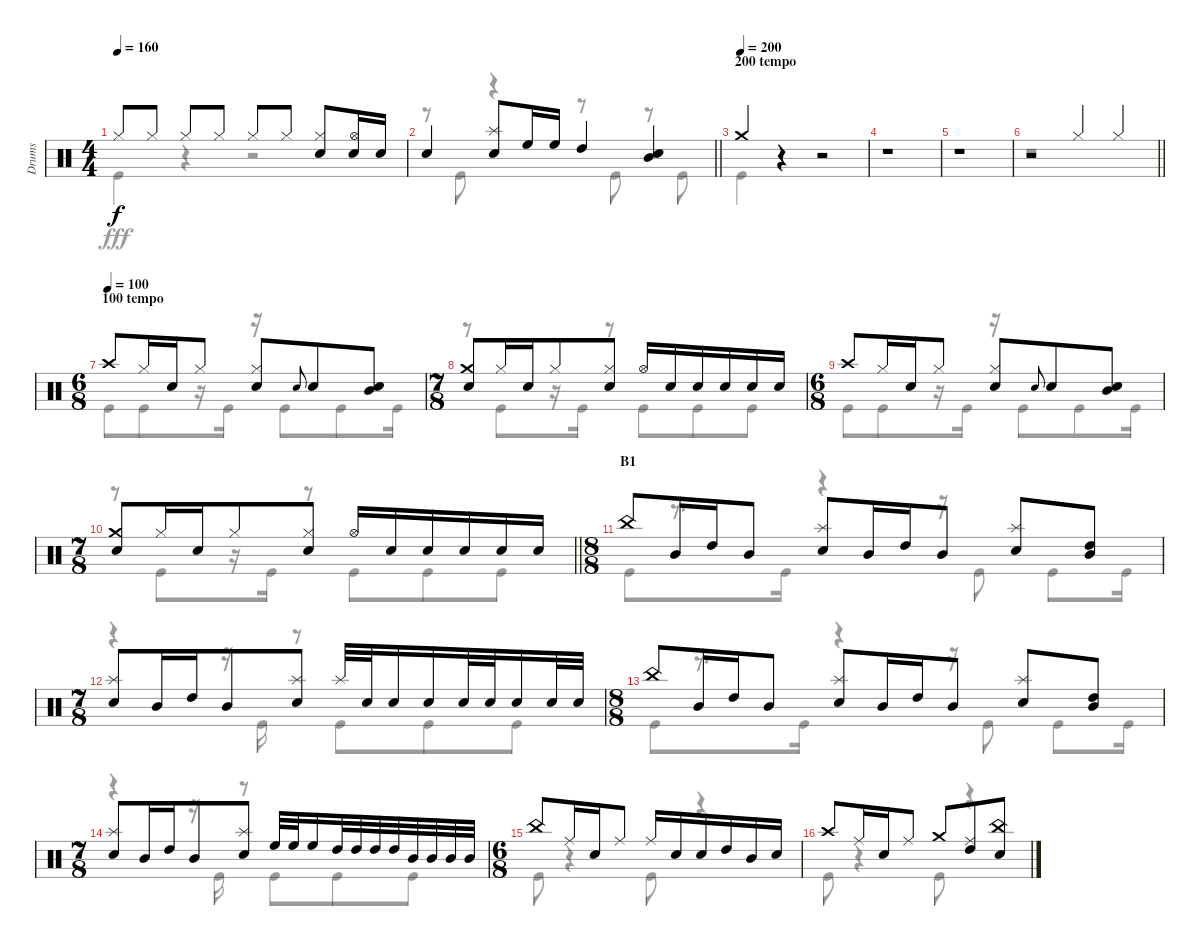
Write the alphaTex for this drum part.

\track ("Drums" "Drums") {instrument percussion}
\staff {score}
\articulation defaults
\voice
\ts (4 4)
\tempo 160
\clef neutral
\ks c "Hi-Hat (closed)".8{dy f} "Hi-Hat (closed)".8 "Hi-Hat (closed)".8 "Hi-Hat (closed)".8 "Hi-Hat (closed)".8 "Hi-Hat (closed)".8
("Hi-Hat (closed)" "Snare (hit) 2").8 ("Hi-Hat (open)" "Snare (hit) 2").16 "Snare (hit) 2".16 |
\barLineRight lightlight "Snare (hit) 2".4
("Splash (hit)" "Snare (hit) 2").8 "High Floor Tom (hit)".16 "High Floor Tom (hit)".16 "High Tom (hit)".4 ("Mid Tom (hit)" "Snare (hit) 2").4 |
\section ("" "200 tempo")
\tempo (200)
"Crash medium (hit)".4 r.4 r.2 |
r.1 |
r.1 |
\barLineRight lightlight
r.2 "Hi-Hat (closed)".4 "Hi-Hat (closed)".4 |
\ts (6 8)
\section ("" "100 tempo")
\tempo (100)
"Crash high (hit)".8 "Hi-Hat (closed)".16 "Snare (hit) 2".16 "Hi-Hat (closed)".8 ("Hi-Hat (closed)" "Snare (hit) 2").8 "Snare (hit) 2".8{gr onbeat} "Snare (hit) 2".8 ("Mid Tom (hit)" "Snare (hit) 2").8 |
\ts (7 8)
("Crash medium (hit)" "Snare (hit) 2").8 "Hi-Hat (closed)".16 "Snare (hit) 2".16 "Hi-Hat (closed)".8 ("Hi-Hat (closed)" "Snare (hit) 2").8 "Hi-Hat (open)".16 "Snare (hit) 2".16 "Snare (hit) 2".16 "Snare (hit) 2".16 "Snare (hit) 2".16 "Snare (hit) 2".16 |
\ts (6 8)
"Crash high (hit)".8 "Hi-Hat (closed)".16 "Snare (hit) 2".16 "Hi-Hat (closed)".8 ("Hi-Hat (closed)" "Snare (hit) 2").8 "Snare (hit) 2".8{gr onbeat} "Snare (hit) 2".8 ("Mid Tom (hit)" "Snare (hit) 2").8 |
\ts (7 8)
\barLineRight lightlight
("Crash medium (hit)" "Snare (hit) 2").8 "Hi-Hat (closed)".16 "Snare (hit) 2".16 "Hi-Hat (closed)".8 ("Hi-Hat (closed)" "Snare (hit) 2").8 "Hi-Hat (open)".16 "Snare (hit) 2".16 "Snare (hit) 2".16 "Snare (hit) 2".16 "Snare (hit) 2".16 "Snare (hit) 2".16 |
\ts (8 8)
\section ("" "B1")
"China (hit)".8 "Mid Tom (hit)".16 "High Tom (hit)".16 "Mid Tom (hit)".8 ("Splash (hit)" "Snare (hit) 2").8 "Mid Tom (hit)".16 "High Tom (hit)".16 "Mid Tom (hit)".8 ("Splash (hit)" "Snare (hit) 2").8 ("High Tom (hit)" "Mid Tom (hit)").8 |
\ts (7 8)
("Splash (hit)" "Snare (hit) 2").8 "Mid Tom (hit)".16 "High Tom (hit)".16 "Mid Tom (hit)".8 ("Splash (hit)" "Snare (hit) 2").8 "Splash (hit)".32 "Snare (hit) 2".32 "Snare (hit) 2".16 "Snare (hit) 2".16 "Snare (hit) 2".32 "Snare (hit) 2".32 "Snare (hit) 2".16 "Snare (hit) 2".32 "Snare (hit) 2".32 |
\ts (8 8)
"China (hit)".8 "Mid Tom (hit)".16 "High Tom (hit)".16 "Mid Tom (hit)".8 ("Splash (hit)" "Snare (hit) 2").8 "Mid Tom (hit)".16 "High Tom (hit)".16 "Mid Tom (hit)".8 ("Splash (hit)" "Snare (hit) 2").8 ("High Tom (hit)" "Mid Tom (hit)").8 |
\ts (7 8)
("Splash (hit)" "Snare (hit) 2").8 "Mid Tom (hit)".16 "High Tom (hit)".16 "Mid Tom (hit)".8 ("Splash (hit)" "Snare (hit) 2").8 "High Floor Tom (hit)".32 "High Floor Tom (hit)".32 "High Floor Tom (hit)".16 "High Tom (hit)".32 "High Tom (hit)".32 "High Tom (hit)".32 "High Tom (hit)".32 "Mid Tom (hit)".32 "Mid Tom (hit)".32 "Mid Tom (hit)".32 "Mid Tom (hit)".32 |
\ts (6 8)
"China (hit)".8 "Ride (middle)".16 "Snare (hit) 2".16 "Ride (middle)".8 "Ride (middle)".16 "Snare (hit) 2".16 "Snare (hit) 2".16 "High Tom (hit)".16 "Mid Tom (hit)".16 "Snare (hit) 2".16 |
"Crash high (hit)".8 "Ride (middle)".16 "Snare (hit) 2".16 "Ride (middle)".8 "Crash medium (hit)".8 ("Ride (middle)" "High Tom (hit)").8 ("China (hit)" "Snare (hit) 2").8
\voice
\clef neutral
\ottava regular
\simile none
\ks c "Kick (hit)".4{dy fff}
r.4 r.2 |
\barLineRight lightlight
r.8 "Kick (hit)".8 r.4 r.8 "Kick (hit)".8 r.8 "Kick (hit)".8 |
"Kick (hit)".4 r.4 r.2 |
r.1 |
r.1 |
\barLineRight lightlight
r.1 |
"Kick (hit)".8 "Kick (hit)".8 r.16 "Kick (hit)".16 r.16 "Kick (hit)".8 "Kick (hit)".8 "Kick (hit)".16 |
r.8 "Kick (hit)".8 r.16 "Kick (hit)".16 r.8 "Kick (hit)".8 "Kick (hit)".8 "Kick (hit)".8 |
"Kick (hit)".8 "Kick (hit)".8 r.16 "Kick (hit)".16 r.16 "Kick (hit)".8 "Kick (hit)".8 "Kick (hit)".16 |
\barLineRight lightlight
r.8 "Kick (hit)".8 r.16 "Kick (hit)".16 r.8 "Kick (hit)".8 "Kick (hit)".8 "Kick (hit)".8 |
"Kick (hit)".8 r.8{d} "Kick (hit)".16 r.4 r.16 "Kick (hit)".8 "Kick (hit)".8 "Kick (hit)".16 |
r.4 r.16 "Kick (hit)".16 r.8 "Kick (hit)".8 "Kick (hit)".8 "Kick (hit)".8 |
"Kick (hit)".8 r.8{d} "Kick (hit)".16 r.4 r.16 "Kick (hit)".8 "Kick (hit)".8 "Kick (hit)".16 |
r.4 r.16 "Kick (hit)".16 r.8 "Kick (hit)".8 "Kick (hit)".8 "Kick (hit)".8 |
"Kick (hit)".8 r.4 "Kick (hit)".8 r.4 |
"Kick (hit)".8 r.4 "Kick (hit)".8 r.4
